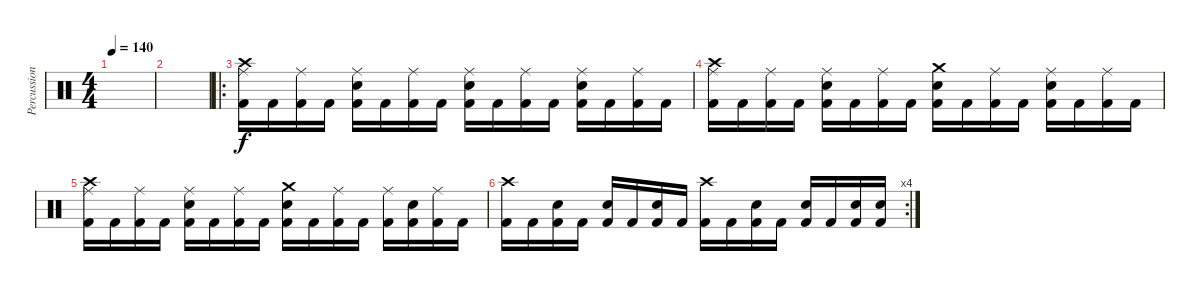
\track ("Percussion" "Percussion") {instrument percussion}
\staff {score}
\articulation defaults
\ts (4 4)
\tempo 140
\clef neutral
\ks c
|
|
\ro
("Crash high (hit)" "Ride (middle)" "Kick (hit) 2").16 "Kick (hit) 2".16 ("Ride (middle)" "Kick (hit) 2").16 "Kick (hit) 2".16 ("Ride (middle)" "Snare (hit) 2" "Kick (hit) 2").16 "Kick (hit) 2".16 ("Ride (middle)" "Kick (hit) 2").16 "Kick (hit) 2".16 ("Ride (middle)" "Snare (hit) 2" "Kick (hit) 2").16 "Kick (hit) 2".16 ("Ride (middle)" "Kick (hit) 2").16 "Kick (hit) 2".16 ("Ride (middle)" "Snare (hit) 2" "Kick (hit) 2").16 "Kick (hit) 2".16 ("Ride (middle)" "Kick (hit) 2").16 "Kick (hit) 2".16 |
("Crash high (hit)" "Ride (middle)" "Kick (hit) 2").16 "Kick (hit) 2".16 ("Ride (middle)" "Kick (hit) 2").16 "Kick (hit) 2".16 ("Ride (middle)" "Snare (hit) 2" "Kick (hit) 2").16 "Kick (hit) 2".16 ("Ride (middle)" "Kick (hit) 2").16 "Kick (hit) 2".16 ("Crash medium (hit)" "Snare (hit) 2" "Kick (hit) 2").16 "Kick (hit) 2".16 ("Ride (middle)" "Kick (hit) 2").16 "Kick (hit) 2".16 ("Ride (middle)" "Snare (hit) 2" "Kick (hit) 2").16 "Kick (hit) 2".16 ("Ride (middle)" "Kick (hit) 2").16 "Kick (hit) 2".16 |
("Crash high (hit)" "Ride (middle)" "Kick (hit) 2").16 "Kick (hit) 2".16 ("Ride (middle)" "Kick (hit) 2").16 "Kick (hit) 2".16 ("Ride (middle)" "Snare (hit) 2" "Kick (hit) 2").16 "Kick (hit) 2".16 ("Ride (middle)" "Kick (hit) 2").16 "Kick (hit) 2".16 ("Crash medium (hit)" "Snare (hit) 2" "Kick (hit) 2").16 "Kick (hit) 2".16 ("Ride (middle)" "Kick (hit) 2").16 "Kick (hit) 2".16 ("Ride (middle)" "Kick (hit) 2").16 ("Snare (hit) 2" "Kick (hit) 2").16 ("Ride (middle)" "Kick (hit) 2").16 "Kick (hit) 2".16 |
\rc 4
("Crash high (hit)" "Kick (hit) 2").16 "Kick (hit) 2".16 ("Snare (hit) 2" "Kick (hit) 2").16 "Kick (hit) 2".16 ("Snare (hit) 2" "Kick (hit) 2").16 "Kick (hit) 2".16 ("Snare (hit) 2" "Kick (hit) 2").16 "Kick (hit) 2".16 ("Crash high (hit)" "Kick (hit) 2").16 "Kick (hit) 2".16 ("Snare (hit) 2" "Kick (hit) 2").16 "Kick (hit) 2".16 ("Snare (hit) 2" "Kick (hit) 2").16 "Kick (hit) 2".16 ("Snare (hit) 2" "Kick (hit) 2").16 ("Snare (hit) 2" "Kick (hit) 2").16
